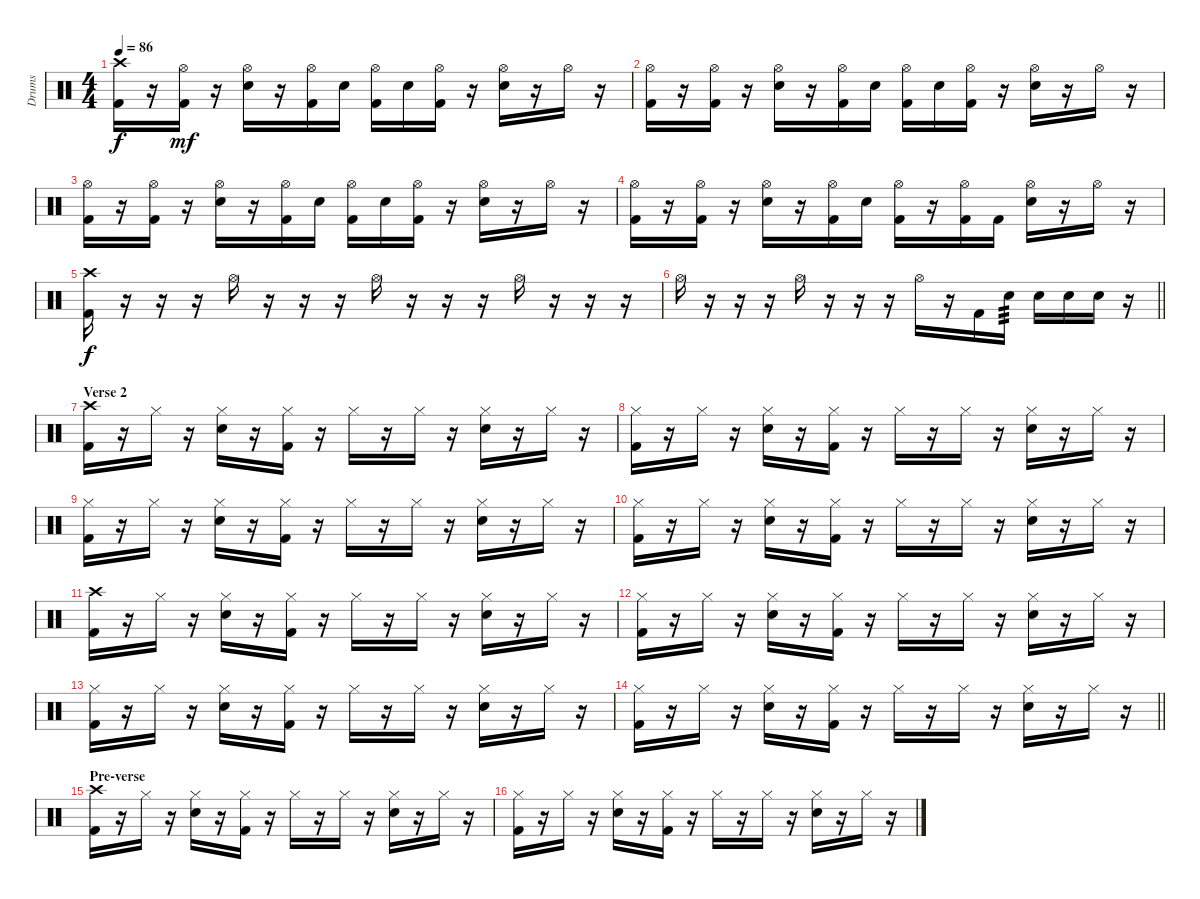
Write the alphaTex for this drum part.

\track ("Drums" "Drums") {instrument percussion}
\staff {score}
\articulation defaults
\ts (4 4)
\tempo 86
\clef neutral
\ks c
("Crash high (hit)" "Kick (hit) 2").16{dy f} r.16 ("Hi-Hat (open)" "Kick (hit) 2").16{dy mf} r.16 ("Hi-Hat (open)" "Electric Snare (hit)").16 r.16 ("Hi-Hat (open)" "Kick (hit) 2").16 "Electric Snare (hit)".16 ("Hi-Hat (open)" "Kick (hit) 2").16 "Electric Snare (hit)".16 ("Hi-Hat (open)" "Kick (hit) 2").16 r.16 ("Hi-Hat (open)" "Electric Snare (hit)").16 r.16 "Hi-Hat (open)".16 r.16 |
("Hi-Hat (open)" "Kick (hit) 2").16 r.16 ("Hi-Hat (open)" "Kick (hit) 2").16 r.16 ("Hi-Hat (open)" "Electric Snare (hit)").16 r.16 ("Hi-Hat (open)" "Kick (hit) 2").16 "Electric Snare (hit)".16 ("Hi-Hat (open)" "Kick (hit) 2").16 "Electric Snare (hit)".16 ("Hi-Hat (open)" "Kick (hit) 2").16 r.16 ("Hi-Hat (open)" "Electric Snare (hit)").16 r.16 "Hi-Hat (open)".16 r.16 |
("Hi-Hat (open)" "Kick (hit) 2").16 r.16 ("Hi-Hat (open)" "Kick (hit) 2").16 r.16 ("Hi-Hat (open)" "Electric Snare (hit)").16 r.16 ("Hi-Hat (open)" "Kick (hit) 2").16 "Electric Snare (hit)".16 ("Hi-Hat (open)" "Kick (hit) 2").16 "Electric Snare (hit)".16 ("Hi-Hat (open)" "Kick (hit) 2").16 r.16 ("Hi-Hat (open)" "Electric Snare (hit)").16 r.16 "Hi-Hat (open)".16 r.16 |
("Hi-Hat (open)" "Kick (hit) 2").16 r.16 ("Hi-Hat (open)" "Kick (hit) 2").16 r.16 ("Hi-Hat (open)" "Electric Snare (hit)").16 r.16 ("Hi-Hat (open)" "Kick (hit) 2").16 "Electric Snare (hit)".16 ("Hi-Hat (open)" "Kick (hit) 2").16 r.16 ("Hi-Hat (open)" "Kick (hit) 2").16 "Kick (hit) 2".16 ("Hi-Hat (open)" "Electric Snare (hit)").16 r.16 "Hi-Hat (open)".16 r.16 |
("Crash high (hit)" "Kick (hit) 2").16{dy f} r.16 r.16 r.16 "Hi-Hat (open)".16 r.16 r.16 r.16 "Hi-Hat (open)".16 r.16 r.16 r.16 "Hi-Hat (open)".16 r.16 r.16 r.16 |
\barLineRight lightlight "Hi-Hat (open)".16
r.16 r.16 r.16 "Hi-Hat (open)".16 r.16 r.16 r.16 "Hi-Hat (open)".16 r.16 "Kick (hit) 2".16 "Electric Snare (hit)".16{tp 3} "Electric Snare (hit)".16 "Electric Snare (hit)".16 "Electric Snare (hit)".16 r.16 |
\section ("" "Verse 2")
("Crash high (hit)" "Kick (hit) 2").16 r.16 "Hi-Hat (closed)".16 r.16 ("Hi-Hat (closed)" "Electric Snare (hit)").16 r.16 ("Hi-Hat (closed)" "Kick (hit) 2").16 r.16 "Hi-Hat (closed)".16 r.16 "Hi-Hat (closed)".16 r.16 ("Hi-Hat (closed)" "Electric Snare (hit)").16 r.16 "Hi-Hat (closed)".16 r.16 |
("Hi-Hat (closed)" "Kick (hit) 2").16 r.16 "Hi-Hat (closed)".16 r.16 ("Hi-Hat (closed)" "Electric Snare (hit)").16 r.16 ("Hi-Hat (closed)" "Kick (hit) 2").16 r.16 "Hi-Hat (closed)".16 r.16 "Hi-Hat (closed)".16 r.16 ("Hi-Hat (closed)" "Electric Snare (hit)").16 r.16 "Hi-Hat (closed)".16 r.16 |
("Hi-Hat (closed)" "Kick (hit) 2").16 r.16 "Hi-Hat (closed)".16 r.16 ("Hi-Hat (closed)" "Electric Snare (hit)").16 r.16 ("Hi-Hat (closed)" "Kick (hit) 2").16 r.16 "Hi-Hat (closed)".16 r.16 "Hi-Hat (closed)".16 r.16 ("Hi-Hat (closed)" "Electric Snare (hit)").16 r.16 "Hi-Hat (closed)".16 r.16 |
("Hi-Hat (closed)" "Kick (hit) 2").16 r.16 "Hi-Hat (closed)".16 r.16 ("Hi-Hat (closed)" "Electric Snare (hit)").16 r.16 ("Hi-Hat (closed)" "Kick (hit) 2").16 r.16 "Hi-Hat (closed)".16 r.16 "Hi-Hat (closed)".16 r.16 ("Hi-Hat (closed)" "Electric Snare (hit)").16 r.16 "Hi-Hat (closed)".16 r.16 |
("Crash high (hit)" "Kick (hit) 2").16 r.16 "Hi-Hat (closed)".16 r.16 ("Hi-Hat (closed)" "Electric Snare (hit)").16 r.16 ("Hi-Hat (closed)" "Kick (hit) 2").16 r.16 "Hi-Hat (closed)".16 r.16 "Hi-Hat (closed)".16 r.16 ("Hi-Hat (closed)" "Electric Snare (hit)").16 r.16 "Hi-Hat (closed)".16 r.16 |
("Hi-Hat (closed)" "Kick (hit) 2").16 r.16 "Hi-Hat (closed)".16 r.16 ("Hi-Hat (closed)" "Electric Snare (hit)").16 r.16 ("Hi-Hat (closed)" "Kick (hit) 2").16 r.16 "Hi-Hat (closed)".16 r.16 "Hi-Hat (closed)".16 r.16 ("Hi-Hat (closed)" "Electric Snare (hit)").16 r.16 "Hi-Hat (closed)".16 r.16 |
("Hi-Hat (closed)" "Kick (hit) 2").16 r.16 "Hi-Hat (closed)".16 r.16 ("Hi-Hat (closed)" "Electric Snare (hit)").16 r.16 ("Hi-Hat (closed)" "Kick (hit) 2").16 r.16 "Hi-Hat (closed)".16 r.16 "Hi-Hat (closed)".16 r.16 ("Hi-Hat (closed)" "Electric Snare (hit)").16 r.16 "Hi-Hat (closed)".16 r.16 |
\barLineRight lightlight
("Hi-Hat (closed)" "Kick (hit) 2").16 r.16 "Hi-Hat (closed)".16 r.16 ("Hi-Hat (closed)" "Electric Snare (hit)").16 r.16 ("Hi-Hat (closed)" "Kick (hit) 2").16 r.16 "Hi-Hat (closed)".16 r.16 "Hi-Hat (closed)".16 r.16 ("Hi-Hat (closed)" "Electric Snare (hit)").16 r.16 "Hi-Hat (closed)".16 r.16 |
\section ("" "Pre-verse")
("Crash high (hit)" "Kick (hit) 2").16 r.16 "Hi-Hat (closed)".16 r.16 ("Hi-Hat (closed)" "Electric Snare (hit)").16 r.16 ("Hi-Hat (closed)" "Kick (hit) 2").16 r.16 "Hi-Hat (closed)".16 r.16 "Hi-Hat (closed)".16 r.16 ("Hi-Hat (closed)" "Electric Snare (hit)").16 r.16 "Hi-Hat (closed)".16 r.16 |
("Hi-Hat (closed)" "Kick (hit) 2").16 r.16 "Hi-Hat (closed)".16 r.16 ("Hi-Hat (closed)" "Electric Snare (hit)").16 r.16 ("Hi-Hat (closed)" "Kick (hit) 2").16 r.16 "Hi-Hat (closed)".16 r.16 "Hi-Hat (closed)".16 r.16 ("Hi-Hat (closed)" "Electric Snare (hit)").16 r.16 "Hi-Hat (closed)".16 r.16
